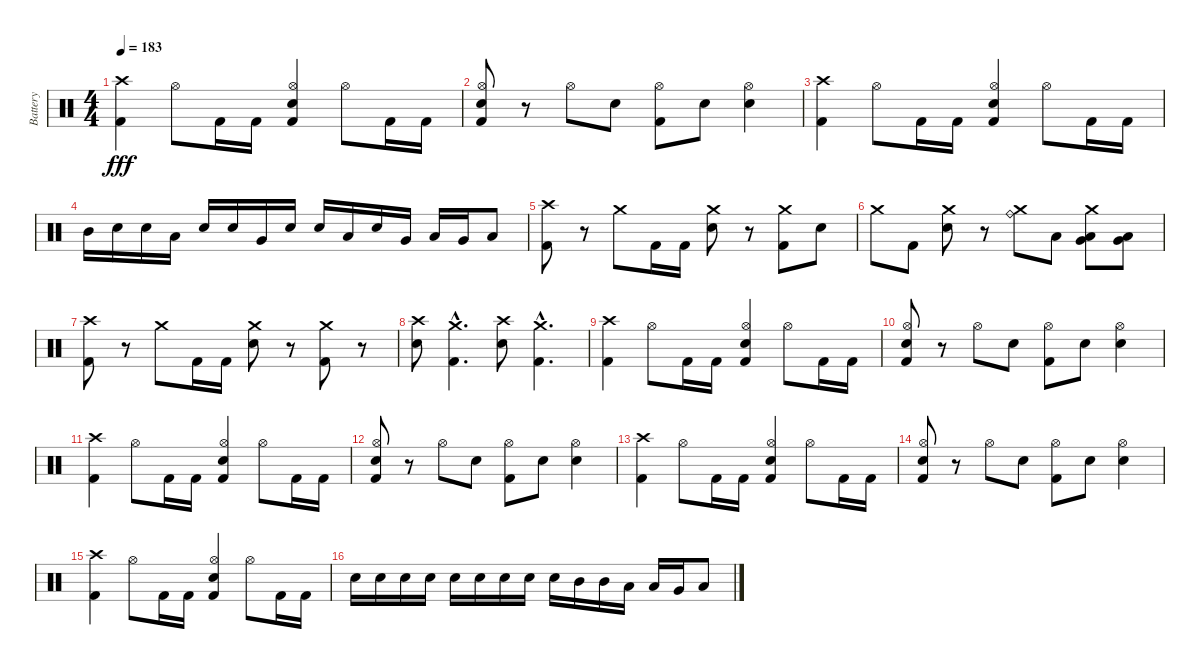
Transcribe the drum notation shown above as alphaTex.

\track ("Battery" "Battery") {instrument percussion}
\staff {score}
\articulation defaults
\ts (4 4)
\tempo 183
\clef neutral
\ks c
("Crash high (hit)" "Kick (hit) 2").4{dy fff} "Hi-Hat (open)".8 "Kick (hit) 2".16 "Kick (hit) 2".16 ("Hi-Hat (open)" "Electric Snare (hit)" "Kick (hit) 2").4 "Hi-Hat (open)".8 "Kick (hit) 2".16 "Kick (hit) 2".16 |
("Hi-Hat (open)" "Electric Snare (hit)" "Kick (hit) 2").8 r.8 "Hi-Hat (open)".8 "Electric Snare (hit)".8 ("Hi-Hat (open)" "Kick (hit) 2").8 "Electric Snare (hit)".8 ("Hi-Hat (open)" "Electric Snare (hit)").4 |
("Crash high (hit)" "Kick (hit) 2").4 "Hi-Hat (open)".8 "Kick (hit) 2".16 "Kick (hit) 2".16 ("Hi-Hat (open)" "Electric Snare (hit)" "Kick (hit) 2").4 "Hi-Hat (open)".8 "Kick (hit) 2".16 "Kick (hit) 2".16 |
"Mid Tom (hit)".16 "Electric Snare (hit)".16 "Electric Snare (hit)".16 "Low Tom (hit)".16 "Electric Snare (hit)".16 "Electric Snare (hit)".16 "Very Low Tom (hit)".16 "Electric Snare (hit)".16 "Electric Snare (hit)".16 "Low Floor Tom (hit)".16 "Electric Snare (hit)".16 "Very Low Tom (hit)".16 "Low Tom (hit)".16 "Very Low Tom (hit)".16 "Low Floor Tom (hit)".8 |
("Crash high (hit)" "Kick (hit) 2").8 r.8 "Crash medium (hit)".8 "Kick (hit) 2".16 "Kick (hit) 2".16 ("Crash medium (hit)" "Electric Snare (hit)").8 r.8 ("Crash medium (hit)" "Kick (hit) 2").8 "Electric Snare (hit)".8 |
"Crash medium (hit)".8 "Kick (hit) 2".8 ("Crash medium (hit)" "Electric Snare (hit)").8 r.8 ("Crash medium (hit)" "Ride (bell)").8 "Low Tom (hit)".8 ("Crash medium (hit)" "Very Low Tom (hit)" "Low Tom (hit)").8 ("Very Low Tom (hit)" "Low Floor Tom (hit)").8 |
("Crash high (hit)" "Kick (hit) 2").8 r.8 "Crash medium (hit)".8 "Kick (hit) 2".16 "Kick (hit) 2".16 ("Crash medium (hit)" "Electric Snare (hit)").8 r.8 ("Crash medium (hit)" "Kick (hit) 2").8 r.8 |
("Crash high (hit)" "Electric Snare (hit)").8 ("Crash medium (hit)"{hac} "Kick (hit) 2"{hac}).4{d} ("Crash high (hit)" "Electric Snare (hit)").8 ("Crash medium (hit)"{hac} "Kick (hit) 2"{hac}).4{d} |
("Crash high (hit)" "Kick (hit) 2").4 "Hi-Hat (open)".8 "Kick (hit) 2".16 "Kick (hit) 2".16 ("Hi-Hat (open)" "Electric Snare (hit)" "Kick (hit) 2").4 "Hi-Hat (open)".8 "Kick (hit) 2".16 "Kick (hit) 2".16 |
("Hi-Hat (open)" "Electric Snare (hit)" "Kick (hit) 2").8 r.8 "Hi-Hat (open)".8 "Electric Snare (hit)".8 ("Hi-Hat (open)" "Kick (hit) 2").8 "Electric Snare (hit)".8 ("Hi-Hat (open)" "Electric Snare (hit)").4 |
("Crash high (hit)" "Kick (hit) 2").4 "Hi-Hat (open)".8 "Kick (hit) 2".16 "Kick (hit) 2".16 ("Hi-Hat (open)" "Electric Snare (hit)" "Kick (hit) 2").4 "Hi-Hat (open)".8 "Kick (hit) 2".16 "Kick (hit) 2".16 |
("Hi-Hat (open)" "Electric Snare (hit)" "Kick (hit) 2").8 r.8 "Hi-Hat (open)".8 "Electric Snare (hit)".8 ("Hi-Hat (open)" "Kick (hit) 2").8 "Electric Snare (hit)".8 ("Hi-Hat (open)" "Electric Snare (hit)").4 |
("Crash high (hit)" "Kick (hit) 2").4 "Hi-Hat (open)".8 "Kick (hit) 2".16 "Kick (hit) 2".16 ("Hi-Hat (open)" "Electric Snare (hit)" "Kick (hit) 2").4 "Hi-Hat (open)".8 "Kick (hit) 2".16 "Kick (hit) 2".16 |
("Hi-Hat (open)" "Electric Snare (hit)" "Kick (hit) 2").8 r.8 "Hi-Hat (open)".8 "Electric Snare (hit)".8 ("Hi-Hat (open)" "Kick (hit) 2").8 "Electric Snare (hit)".8 ("Hi-Hat (open)" "Electric Snare (hit)").4 |
("Crash high (hit)" "Kick (hit) 2").4 "Hi-Hat (open)".8 "Kick (hit) 2".16 "Kick (hit) 2".16 ("Hi-Hat (open)" "Electric Snare (hit)" "Kick (hit) 2").4 "Hi-Hat (open)".8 "Kick (hit) 2".16 "Kick (hit) 2".16 |
"Electric Snare (hit)".16 "Electric Snare (hit)".16 "Electric Snare (hit)".16 "Electric Snare (hit)".16 "Electric Snare (hit)".16 "Electric Snare (hit)".16 "Electric Snare (hit)".16 "Electric Snare (hit)".16 "Electric Snare (hit)".16 "Mid Tom (hit)".16 "Mid Tom (hit)".16 "Low Tom (hit)".16 "Low Tom (hit)".16 "Very Low Tom (hit)".16 "Low Floor Tom (hit)".8
